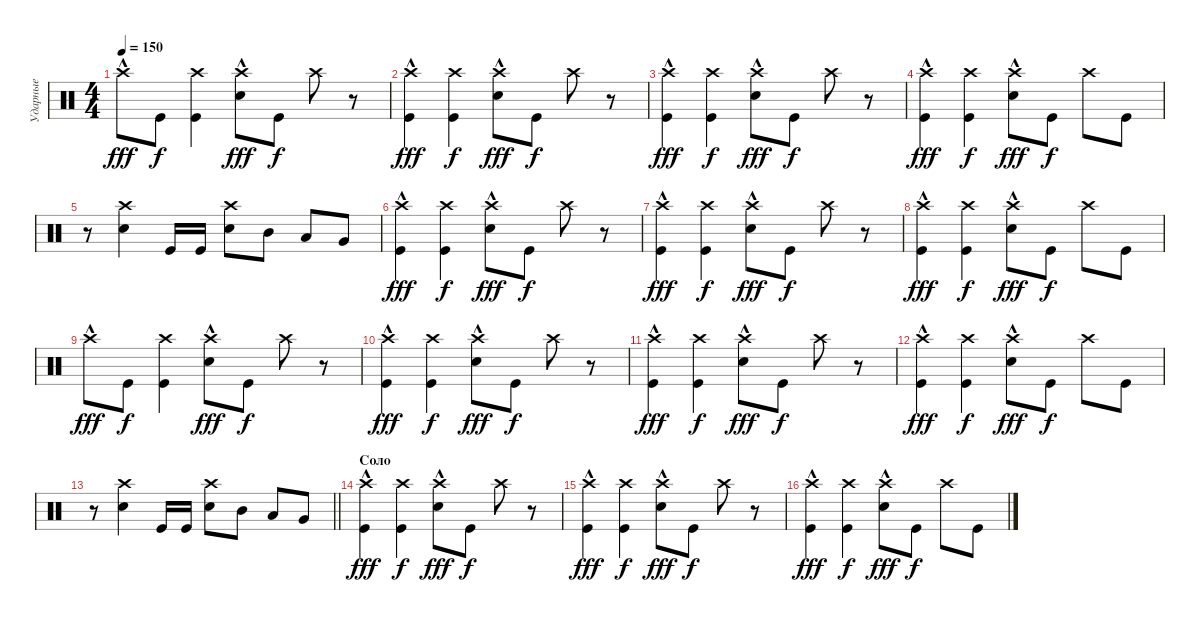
\track ("Ударные" "Ударные") {instrument percussion}
\staff {score}
\articulation defaults
\ts (4 4)
\tempo 150
\clef neutral
\ks c "Crash high (hit)"{hac}.8{dy fff} "Kick (hit)".8{dy f}
("Crash high (hit)" "Kick (hit)").4 ("Crash high (hit)"{hac} "Snare (hit) 2").8{dy fff} "Kick (hit)".8{dy f} "Crash high (hit)".8 r.8 |
("Crash high (hit)"{hac} "Kick (hit)").4{dy fff} ("Crash high (hit)" "Kick (hit)").4{dy f} ("Crash high (hit)"{hac} "Snare (hit) 2").8{dy fff} "Kick (hit)".8{dy f} "Crash high (hit)".8 r.8 |
("Crash high (hit)"{hac} "Kick (hit)").4{dy fff} ("Crash high (hit)" "Kick (hit)").4{dy f} ("Crash high (hit)"{hac} "Snare (hit) 2").8{dy fff} "Kick (hit)".8{dy f} "Crash high (hit)".8 r.8 |
("Crash high (hit)"{hac} "Kick (hit)").4{dy fff} ("Crash high (hit)" "Kick (hit)").4{dy f} ("Crash high (hit)"{hac} "Snare (hit) 2").8{dy fff} "Kick (hit)".8{dy f} "Crash high (hit)".8 "Kick (hit)".8 |
r.8 ("Crash high (hit)" "Snare (hit) 2").4 "Kick (hit)".16 "Kick (hit)".16 ("Crash high (hit)" "Snare (hit) 2").8 "Mid Tom (hit)".8 "Low Tom (hit)".8 "Very Low Tom (hit)".8 |
("Crash high (hit)"{hac} "Kick (hit)").4{dy fff} ("Crash high (hit)" "Kick (hit)").4{dy f} ("Crash high (hit)"{hac} "Snare (hit) 2").8{dy fff} "Kick (hit)".8{dy f} "Crash high (hit)".8 r.8 |
("Crash high (hit)"{hac} "Kick (hit)").4{dy fff} ("Crash high (hit)" "Kick (hit)").4{dy f} ("Crash high (hit)"{hac} "Snare (hit) 2").8{dy fff} "Kick (hit)".8{dy f} "Crash high (hit)".8 r.8 |
("Crash high (hit)"{hac} "Kick (hit)").4{dy fff} ("Crash high (hit)" "Kick (hit)").4{dy f} ("Crash high (hit)"{hac} "Snare (hit) 2").8{dy fff} "Kick (hit)".8{dy f} "Crash high (hit)".8 "Kick (hit)".8 |
"Crash high (hit)"{hac}.8{dy fff} "Kick (hit)".8{dy f} ("Crash high (hit)" "Kick (hit)").4 ("Crash high (hit)"{hac} "Snare (hit) 2").8{dy fff} "Kick (hit)".8{dy f} "Crash high (hit)".8 r.8 |
("Crash high (hit)"{hac} "Kick (hit)").4{dy fff} ("Crash high (hit)" "Kick (hit)").4{dy f} ("Crash high (hit)"{hac} "Snare (hit) 2").8{dy fff} "Kick (hit)".8{dy f} "Crash high (hit)".8 r.8 |
("Crash high (hit)"{hac} "Kick (hit)").4{dy fff} ("Crash high (hit)" "Kick (hit)").4{dy f} ("Crash high (hit)"{hac} "Snare (hit) 2").8{dy fff} "Kick (hit)".8{dy f} "Crash high (hit)".8 r.8 |
("Crash high (hit)"{hac} "Kick (hit)").4{dy fff} ("Crash high (hit)" "Kick (hit)").4{dy f} ("Crash high (hit)"{hac} "Snare (hit) 2").8{dy fff} "Kick (hit)".8{dy f} "Crash high (hit)".8 "Kick (hit)".8 |
\barLineRight lightlight
r.8 ("Crash high (hit)" "Snare (hit) 2").4 "Kick (hit)".16 "Kick (hit)".16 ("Crash high (hit)" "Snare (hit) 2").8 "Mid Tom (hit)".8 "Low Tom (hit)".8 "Very Low Tom (hit)".8 |
\section ("" "Соло")
("Crash high (hit)"{hac} "Kick (hit)").4{dy fff} ("Crash high (hit)" "Kick (hit)").4{dy f} ("Crash high (hit)"{hac} "Snare (hit) 2").8{dy fff} "Kick (hit)".8{dy f} "Crash high (hit)".8 r.8 |
("Crash high (hit)"{hac} "Kick (hit)").4{dy fff} ("Crash high (hit)" "Kick (hit)").4{dy f} ("Crash high (hit)"{hac} "Snare (hit) 2").8{dy fff} "Kick (hit)".8{dy f} "Crash high (hit)".8 r.8 |
("Crash high (hit)"{hac} "Kick (hit)").4{dy fff} ("Crash high (hit)" "Kick (hit)").4{dy f} ("Crash high (hit)"{hac} "Snare (hit) 2").8{dy fff} "Kick (hit)".8{dy f} "Crash high (hit)".8 "Kick (hit)".8
